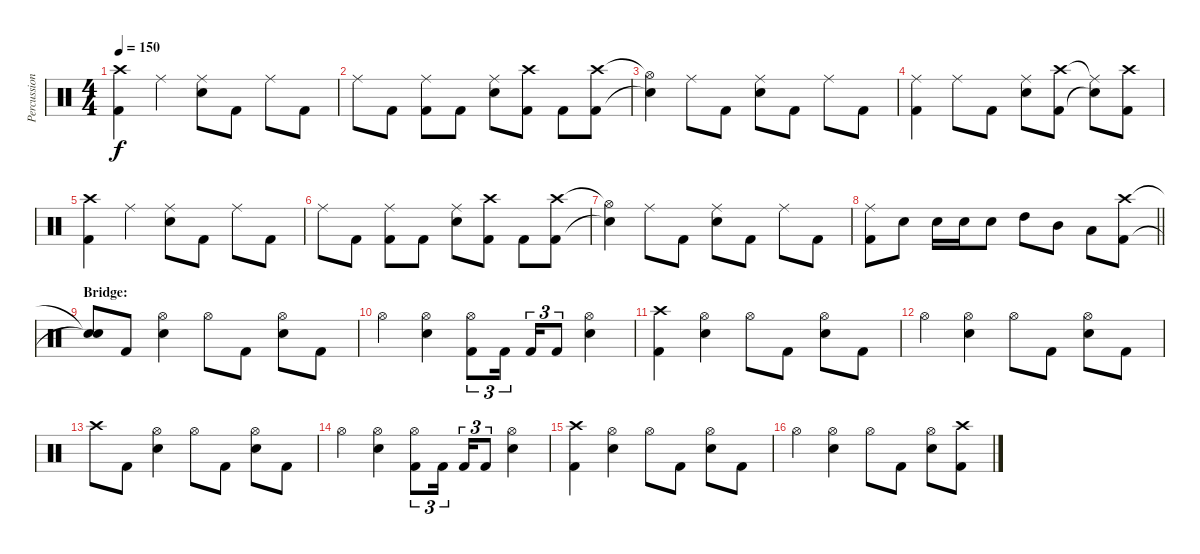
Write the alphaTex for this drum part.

\track ("Percussion" "Percussion") {instrument percussion}
\staff {score}
\articulation defaults
\ts (4 4)
\tempo 150
\clef neutral
\ks c
("Crash high (hit)" "Kick (hit) 2").4{dy f} "Ride (middle)".4 ("Ride (middle)" "Snare (hit) 2").8 "Kick (hit) 2".8 "Ride (middle)".8 "Kick (hit) 2".8 |
"Ride (middle)".8 "Kick (hit) 2".8 ("Ride (middle)" "Kick (hit) 2").8 "Kick (hit) 2".8 ("Ride (middle)" "Snare (hit) 2").8 ("Crash high (hit)" "Kick (hit) 2").8 "Kick (hit) 2".8 ("Crash high (hit)" "Kick (hit) 2").8 |
("Hi-Hat (open)"{t} "Snare (hit)"{t}).4 "Ride (middle)".8 "Kick (hit) 2".8 ("Ride (middle)" "Snare (hit) 2").8 "Kick (hit) 2".8 "Ride (middle)".8 "Kick (hit) 2".8 |
("Ride (middle)" "Kick (hit) 2").4 "Ride (middle)".8 "Kick (hit) 2".8 ("Ride (middle)" "Snare (hit) 2").8 ("Crash high (hit)" "Kick (hit) 2").8 ("Ride (middle)"{t} "Snare (hit) 2"{t}).8 ("Crash high (hit)" "Kick (hit) 2").8 |
("Crash high (hit)" "Kick (hit) 2").4 "Ride (middle)".4 ("Ride (middle)" "Snare (hit) 2").8 "Kick (hit) 2".8 "Ride (middle)".8 "Kick (hit) 2".8 |
"Ride (middle)".8 "Kick (hit) 2".8 ("Ride (middle)" "Kick (hit) 2").8 "Kick (hit) 2".8 ("Ride (middle)" "Snare (hit) 2").8 ("Crash high (hit)" "Kick (hit) 2").8 "Kick (hit) 2".8 ("Crash high (hit)" "Kick (hit) 2").8 |
("Hi-Hat (open)"{t} "Snare (hit)"{t}).4 "Ride (middle)".8 "Kick (hit) 2".8 ("Ride (middle)" "Snare (hit) 2").8 "Kick (hit) 2".8 "Ride (middle)".8 "Kick (hit) 2".8 |
\barLineRight lightlight
("Ride (middle)" "Kick (hit) 2").8 "Snare (hit) 2".8 "Snare (hit) 2".16 "Snare (hit) 2".16 "Snare (hit) 2".8 "High Tom (hit)".8 "Mid Tom (hit)".8 "Low Tom (hit)".8 ("Crash high (hit)" "Kick (hit) 2").8 |
\section ("" "Bridge:")
("Snare (hit)"{t} "Snare (hit)"{t}).8 "Kick (hit) 2".8 ("Hi-Hat (open)" "Snare (hit) 2").4 "Hi-Hat (open)".8 "Kick (hit) 2".8 ("Hi-Hat (open)" "Snare (hit) 2").8 "Kick (hit) 2".8 |
"Hi-Hat (open)".4 ("Hi-Hat (open)" "Snare (hit) 2").4 ("Hi-Hat (open)" "Kick (hit) 2").8{tu (3 2)} "Kick (hit) 2".16{tu (3 2) beam splitsecondary} "Kick (hit) 2".16{tu (3 2)} "Kick (hit) 2".8{tu (3 2)} ("Hi-Hat (open)" "Snare (hit) 2").4 |
("Crash high (hit)" "Kick (hit) 2").4 ("Hi-Hat (open)" "Snare (hit) 2").4 "Hi-Hat (open)".8 "Kick (hit) 2".8 ("Hi-Hat (open)" "Snare (hit) 2").8 "Kick (hit) 2".8 |
"Hi-Hat (open)".4 ("Hi-Hat (open)" "Snare (hit) 2").4 "Hi-Hat (open)".8 "Kick (hit) 2".8 ("Hi-Hat (open)" "Snare (hit) 2").8 "Kick (hit) 2".8 |
"Crash high (hit)".8 "Kick (hit) 2".8 ("Hi-Hat (open)" "Snare (hit) 2").4 "Hi-Hat (open)".8 "Kick (hit) 2".8 ("Hi-Hat (open)" "Snare (hit) 2").8 "Kick (hit) 2".8 |
"Hi-Hat (open)".4 ("Hi-Hat (open)" "Snare (hit) 2").4 ("Hi-Hat (open)" "Kick (hit) 2").8{tu (3 2)} "Kick (hit) 2".16{tu (3 2) beam splitsecondary} "Kick (hit) 2".16{tu (3 2)} "Kick (hit) 2".8{tu (3 2)} ("Hi-Hat (open)" "Snare (hit) 2").4 |
("Crash high (hit)" "Kick (hit) 2").4 ("Hi-Hat (open)" "Snare (hit) 2").4 "Hi-Hat (open)".8 "Kick (hit) 2".8 ("Hi-Hat (open)" "Snare (hit) 2").8 "Kick (hit) 2".8 |
"Hi-Hat (open)".4 ("Hi-Hat (open)" "Snare (hit) 2").4 "Hi-Hat (open)".8 "Kick (hit) 2".8 ("Hi-Hat (open)" "Snare (hit) 2").8 ("Crash high (hit)" "Kick (hit) 2").8
